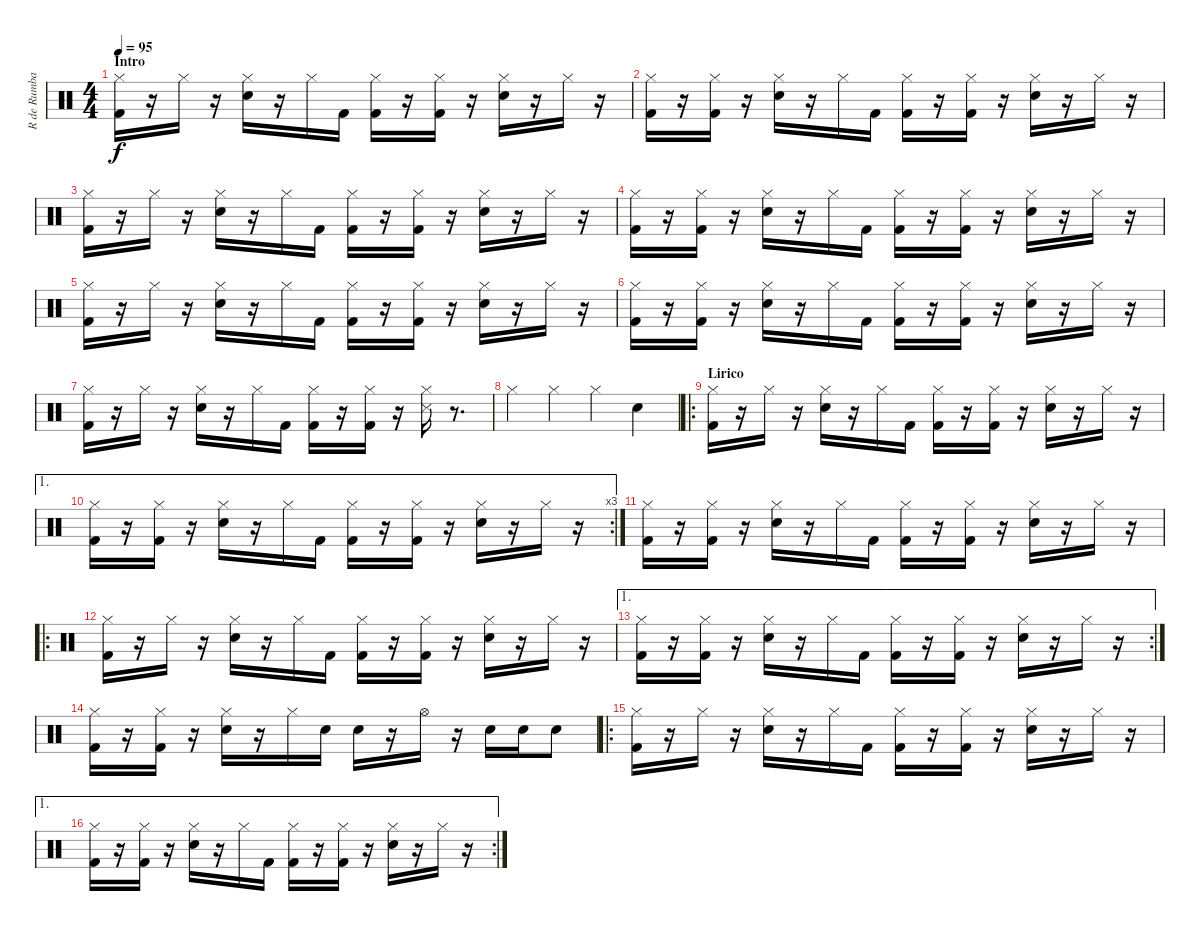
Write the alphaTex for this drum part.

\track ("R de Rumba" "R de Rumba") {instrument percussion}
\staff {score}
\articulation defaults
\ts (4 4)
\section ("" "Intro")
\tempo 95
\clef neutral
\ks c
("Hi-Hat (closed)" "Kick (hit) 2").16{dy f} r.16 "Hi-Hat (closed)".16 r.16 ("Hi-Hat (closed)" "Snare (hit) 2").16 r.16 "Hi-Hat (closed)".16 "Kick (hit) 2".16 ("Hi-Hat (closed)" "Kick (hit) 2").16 r.16 ("Hi-Hat (closed)" "Kick (hit) 2").16 r.16 ("Hi-Hat (closed)" "Snare (hit) 2").16 r.16 "Hi-Hat (closed)".16 r.16 |
("Hi-Hat (closed)" "Kick (hit) 2").16 r.16 ("Hi-Hat (closed)" "Kick (hit) 2").16 r.16 ("Hi-Hat (closed)" "Snare (hit) 2").16 r.16 "Hi-Hat (closed)".16 "Kick (hit) 2".16 ("Hi-Hat (closed)" "Kick (hit) 2").16 r.16 ("Hi-Hat (closed)" "Kick (hit) 2").16 r.16 ("Hi-Hat (closed)" "Snare (hit) 2").16 r.16 "Hi-Hat (closed)".16 r.16 |
("Hi-Hat (closed)" "Kick (hit) 2").16 r.16 "Hi-Hat (closed)".16 r.16 ("Hi-Hat (closed)" "Snare (hit) 2").16 r.16 "Hi-Hat (closed)".16 "Kick (hit) 2".16 ("Hi-Hat (closed)" "Kick (hit) 2").16 r.16 ("Hi-Hat (closed)" "Kick (hit) 2").16 r.16 ("Hi-Hat (closed)" "Snare (hit) 2").16 r.16 "Hi-Hat (closed)".16 r.16 |
("Hi-Hat (closed)" "Kick (hit) 2").16 r.16 ("Hi-Hat (closed)" "Kick (hit) 2").16 r.16 ("Hi-Hat (closed)" "Snare (hit) 2").16 r.16 "Hi-Hat (closed)".16 "Kick (hit) 2".16 ("Hi-Hat (closed)" "Kick (hit) 2").16 r.16 ("Hi-Hat (closed)" "Kick (hit) 2").16 r.16 ("Hi-Hat (closed)" "Snare (hit) 2").16 r.16 "Hi-Hat (closed)".16 r.16 |
("Hi-Hat (closed)" "Kick (hit) 2").16 r.16 "Hi-Hat (closed)".16 r.16 ("Hi-Hat (closed)" "Snare (hit) 2").16 r.16 "Hi-Hat (closed)".16 "Kick (hit) 2".16 ("Hi-Hat (closed)" "Kick (hit) 2").16 r.16 ("Hi-Hat (closed)" "Kick (hit) 2").16 r.16 ("Hi-Hat (closed)" "Snare (hit) 2").16 r.16 "Hi-Hat (closed)".16 r.16 |
("Hi-Hat (closed)" "Kick (hit) 2").16 r.16 ("Hi-Hat (closed)" "Kick (hit) 2").16 r.16 ("Hi-Hat (closed)" "Snare (hit) 2").16 r.16 "Hi-Hat (closed)".16 "Kick (hit) 2".16 ("Hi-Hat (closed)" "Kick (hit) 2").16 r.16 ("Hi-Hat (closed)" "Kick (hit) 2").16 r.16 ("Hi-Hat (closed)" "Snare (hit) 2").16 r.16 "Hi-Hat (closed)".16 r.16 |
("Hi-Hat (closed)" "Kick (hit) 2").16 r.16 "Hi-Hat (closed)".16 r.16 ("Hi-Hat (closed)" "Snare (hit) 2").16 r.16 "Hi-Hat (closed)".16 "Kick (hit) 2".16 ("Hi-Hat (closed)" "Kick (hit) 2").16 r.16 ("Hi-Hat (closed)" "Kick (hit) 2").16 r.16 ("Hi-Hat (closed)" "Snare (side stick) 3").16 r.8{d} |
"Hi-Hat (closed)".4 "Hi-Hat (closed)".4 "Hi-Hat (closed)".4 "Snare (hit) 2".4 |
\ro
\section ("" "Lirico")
("Hi-Hat (closed)" "Kick (hit) 2").16 r.16 "Hi-Hat (closed)".16 r.16 ("Hi-Hat (closed)" "Snare (hit) 2").16 r.16 "Hi-Hat (closed)".16 "Kick (hit) 2".16 ("Hi-Hat (closed)" "Kick (hit) 2").16 r.16 ("Hi-Hat (closed)" "Kick (hit) 2").16 r.16 ("Hi-Hat (closed)" "Snare (hit) 2").16 r.16 "Hi-Hat (closed)".16 r.16 |
\ae 1
\rc 3
("Hi-Hat (closed)" "Kick (hit) 2").16 r.16 ("Hi-Hat (closed)" "Kick (hit) 2").16 r.16 ("Hi-Hat (closed)" "Snare (hit) 2").16 r.16 "Hi-Hat (closed)".16 "Kick (hit) 2".16 ("Hi-Hat (closed)" "Kick (hit) 2").16 r.16 ("Hi-Hat (closed)" "Kick (hit) 2").16 r.16 ("Hi-Hat (closed)" "Snare (hit) 2").16 r.16 "Hi-Hat (closed)".16 r.16 |
("Hi-Hat (closed)" "Kick (hit) 2").16 r.16 ("Hi-Hat (closed)" "Kick (hit) 2").16 r.16 ("Hi-Hat (closed)" "Snare (hit) 2").16 r.16 "Hi-Hat (closed)".16 "Kick (hit) 2".16 ("Hi-Hat (closed)" "Kick (hit) 2").16 r.16 ("Hi-Hat (closed)" "Kick (hit) 2").16 r.16 ("Hi-Hat (closed)" "Snare (hit) 2").16 r.16 "Hi-Hat (closed)".16 r.16 |
\ro
("Hi-Hat (closed)" "Kick (hit) 2").16 r.16 "Hi-Hat (closed)".16 r.16 ("Hi-Hat (closed)" "Snare (hit) 2").16 r.16 "Hi-Hat (closed)".16 "Kick (hit) 2".16 ("Hi-Hat (closed)" "Kick (hit) 2").16 r.16 ("Hi-Hat (closed)" "Kick (hit) 2").16 r.16 ("Hi-Hat (closed)" "Snare (hit) 2").16 r.16 "Hi-Hat (closed)".16 r.16 |
\ae 1
\rc 2
("Hi-Hat (closed)" "Kick (hit) 2").16 r.16 ("Hi-Hat (closed)" "Kick (hit) 2").16 r.16 ("Hi-Hat (closed)" "Snare (hit) 2").16 r.16 "Hi-Hat (closed)".16 "Kick (hit) 2".16 ("Hi-Hat (closed)" "Kick (hit) 2").16 r.16 ("Hi-Hat (closed)" "Kick (hit) 2").16 r.16 ("Hi-Hat (closed)" "Snare (hit) 2").16 r.16 "Hi-Hat (closed)".16 r.16 |
("Hi-Hat (closed)" "Kick (hit) 2").16 r.16 ("Hi-Hat (closed)" "Kick (hit) 2").16 r.16 ("Hi-Hat (closed)" "Snare (hit) 2").16 r.16 "Hi-Hat (closed)".16 "Snare (hit) 2".16 "Snare (hit) 2".16 r.16 "Hi-Hat (open)".16 r.16 "Snare (hit) 2".16 "Snare (hit) 2".16 "Snare (hit) 2".8 |
\ro
("Hi-Hat (closed)" "Kick (hit) 2").16 r.16 "Hi-Hat (closed)".16 r.16 ("Hi-Hat (closed)" "Snare (hit) 2").16 r.16 "Hi-Hat (closed)".16 "Kick (hit) 2".16 ("Hi-Hat (closed)" "Kick (hit) 2").16 r.16 ("Hi-Hat (closed)" "Kick (hit) 2").16 r.16 ("Hi-Hat (closed)" "Snare (hit) 2").16 r.16 "Hi-Hat (closed)".16 r.16 |
\ae 1
\rc 2
("Hi-Hat (closed)" "Kick (hit) 2").16 r.16 ("Hi-Hat (closed)" "Kick (hit) 2").16 r.16 ("Hi-Hat (closed)" "Snare (hit) 2").16 r.16 "Hi-Hat (closed)".16 "Kick (hit) 2".16 ("Hi-Hat (closed)" "Kick (hit) 2").16 r.16 ("Hi-Hat (closed)" "Kick (hit) 2").16 r.16 ("Hi-Hat (closed)" "Snare (hit) 2").16 r.16 "Hi-Hat (closed)".16 r.16
